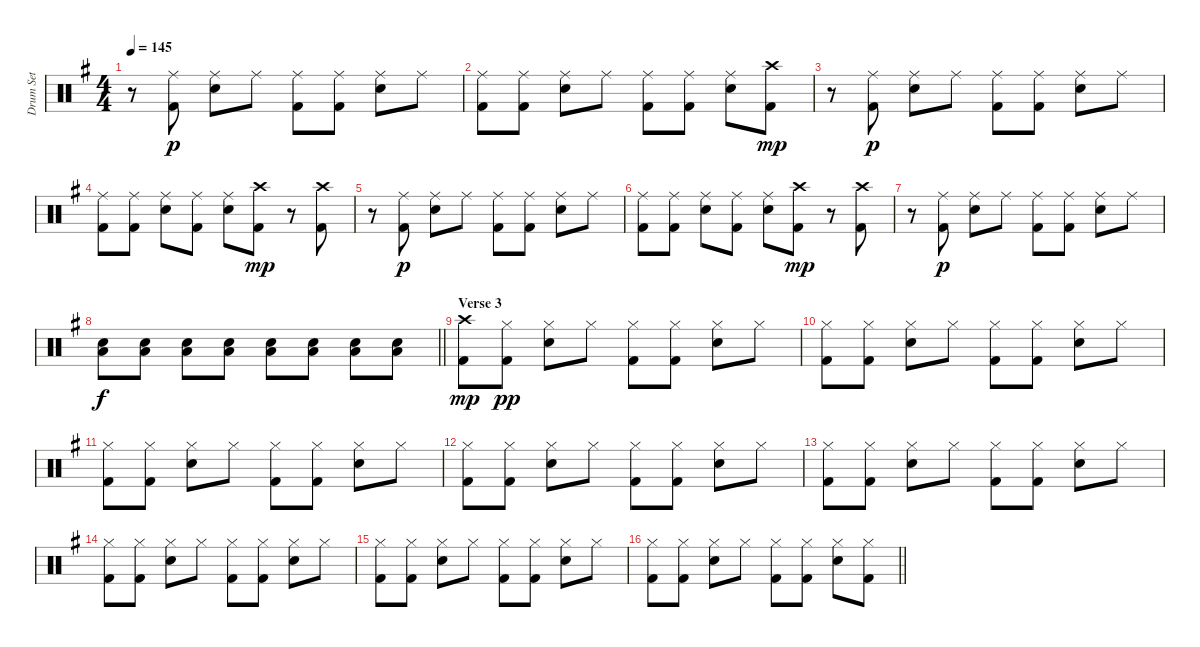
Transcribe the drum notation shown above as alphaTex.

\track ("Drum Set" "Drum Set") {instrument percussion}
\staff {score}
\articulation defaults
\ts (4 4)
\tempo 145
\clef neutral
\ks g
r.8{dy mp} ("Kick (hit) 2" "Ride (middle)").8{dy p} ("Ride (middle)" "Electric Snare (hit)").8 "Ride (middle)".8 ("Ride (middle)" "Kick (hit) 2").8 ("Ride (middle)" "Kick (hit) 2").8 ("Ride (middle)" "Electric Snare (hit)").8 "Ride (middle)".8 |
("Ride (middle)" "Kick (hit) 2").8 ("Ride (middle)" "Kick (hit) 2").8 ("Ride (middle)" "Electric Snare (hit)").8 "Ride (middle)".8 ("Ride (middle)" "Kick (hit) 2").8 ("Ride (middle)" "Kick (hit) 2").8 ("Ride (middle)" "Electric Snare (hit)").8 ("Crash high (hit)" "Kick (hit) 2").8{dy mp} |
r.8 ("Kick (hit) 2" "Ride (middle)").8{dy p} ("Ride (middle)" "Electric Snare (hit)").8 "Ride (middle)".8 ("Ride (middle)" "Kick (hit) 2").8 ("Ride (middle)" "Kick (hit) 2").8 ("Ride (middle)" "Electric Snare (hit)").8 "Ride (middle)".8 |
("Ride (middle)" "Kick (hit) 2").8 ("Ride (middle)" "Kick (hit) 2").8 ("Ride (middle)" "Electric Snare (hit)").8 ("Ride (middle)" "Kick (hit) 2").8 ("Ride (middle)" "Electric Snare (hit)").8 ("Crash high (hit)" "Kick (hit) 2").8{dy mp} r.8 ("Kick (hit) 2" "Crash high (hit)").8 |
r.8 ("Kick (hit) 2" "Ride (middle)").8{dy p} ("Ride (middle)" "Electric Snare (hit)").8 "Ride (middle)".8 ("Ride (middle)" "Kick (hit) 2").8 ("Ride (middle)" "Kick (hit) 2").8 ("Ride (middle)" "Electric Snare (hit)").8 "Ride (middle)".8 |
("Ride (middle)" "Kick (hit) 2").8 ("Ride (middle)" "Kick (hit) 2").8 ("Ride (middle)" "Electric Snare (hit)").8 ("Ride (middle)" "Kick (hit) 2").8 ("Ride (middle)" "Electric Snare (hit)").8 ("Crash high (hit)" "Kick (hit) 2").8{dy mp} r.8 ("Kick (hit) 2" "Crash high (hit)").8 |
r.8 ("Kick (hit) 2" "Ride (middle)").8{dy p} ("Ride (middle)" "Electric Snare (hit)").8 "Ride (middle)".8 ("Ride (middle)" "Kick (hit) 2").8 ("Ride (middle)" "Kick (hit) 2").8 ("Ride (middle)" "Electric Snare (hit)").8 "Ride (middle)".8 |
\barLineRight lightlight
("Electric Snare (hit)" "Low Tom (hit)").8{dy f} ("Electric Snare (hit)" "Low Tom (hit)").8 ("Electric Snare (hit)" "Low Tom (hit)").8 ("Electric Snare (hit)" "Low Tom (hit)").8 ("Electric Snare (hit)" "Low Tom (hit)").8 ("Electric Snare (hit)" "Low Tom (hit)").8 ("Electric Snare (hit)" "Low Tom (hit)").8 ("Electric Snare (hit)" "Low Tom (hit)").8 |
\section ("" "Verse 3")
("Crash high (hit)" "Kick (hit) 2").8{dy mp} ("Hi-Hat (closed)" "Kick (hit) 2").8{dy pp} ("Hi-Hat (closed)" "Electric Snare (hit)").8 "Hi-Hat (closed)".8 ("Hi-Hat (closed)" "Kick (hit) 2").8 ("Hi-Hat (closed)" "Kick (hit) 2").8 ("Hi-Hat (closed)" "Electric Snare (hit)").8 "Hi-Hat (closed)".8 |
("Hi-Hat (closed)" "Kick (hit) 2").8 ("Hi-Hat (closed)" "Kick (hit) 2").8 ("Hi-Hat (closed)" "Electric Snare (hit)").8 "Hi-Hat (closed)".8 ("Hi-Hat (closed)" "Kick (hit) 2").8 ("Hi-Hat (closed)" "Kick (hit) 2").8 ("Hi-Hat (closed)" "Electric Snare (hit)").8 "Hi-Hat (closed)".8 |
("Hi-Hat (closed)" "Kick (hit) 2").8 ("Hi-Hat (closed)" "Kick (hit) 2").8 ("Hi-Hat (closed)" "Electric Snare (hit)").8 "Hi-Hat (closed)".8 ("Hi-Hat (closed)" "Kick (hit) 2").8 ("Hi-Hat (closed)" "Kick (hit) 2").8 ("Hi-Hat (closed)" "Electric Snare (hit)").8 "Hi-Hat (closed)".8 |
("Hi-Hat (closed)" "Kick (hit) 2").8 ("Hi-Hat (closed)" "Kick (hit) 2").8 ("Hi-Hat (closed)" "Electric Snare (hit)").8 "Hi-Hat (closed)".8 ("Hi-Hat (closed)" "Kick (hit) 2").8 ("Hi-Hat (closed)" "Kick (hit) 2").8 ("Hi-Hat (closed)" "Electric Snare (hit)").8 "Hi-Hat (closed)".8 |
("Hi-Hat (closed)" "Kick (hit) 2").8 ("Hi-Hat (closed)" "Kick (hit) 2").8 ("Hi-Hat (closed)" "Electric Snare (hit)").8 "Hi-Hat (closed)".8 ("Hi-Hat (closed)" "Kick (hit) 2").8 ("Hi-Hat (closed)" "Kick (hit) 2").8 ("Hi-Hat (closed)" "Electric Snare (hit)").8 "Hi-Hat (closed)".8 |
("Hi-Hat (closed)" "Kick (hit) 2").8 ("Hi-Hat (closed)" "Kick (hit) 2").8 ("Hi-Hat (closed)" "Electric Snare (hit)").8 "Hi-Hat (closed)".8 ("Hi-Hat (closed)" "Kick (hit) 2").8 ("Hi-Hat (closed)" "Kick (hit) 2").8 ("Hi-Hat (closed)" "Electric Snare (hit)").8 "Hi-Hat (closed)".8 |
("Hi-Hat (closed)" "Kick (hit) 2").8 ("Hi-Hat (closed)" "Kick (hit) 2").8 ("Hi-Hat (closed)" "Electric Snare (hit)").8 "Hi-Hat (closed)".8 ("Hi-Hat (closed)" "Kick (hit) 2").8 ("Hi-Hat (closed)" "Kick (hit) 2").8 ("Hi-Hat (closed)" "Electric Snare (hit)").8 "Hi-Hat (closed)".8 |
\barLineRight lightlight
("Hi-Hat (closed)" "Kick (hit) 2").8 ("Hi-Hat (closed)" "Kick (hit) 2").8 ("Hi-Hat (closed)" "Electric Snare (hit)").8 "Hi-Hat (closed)".8 ("Hi-Hat (closed)" "Kick (hit) 2").8 ("Hi-Hat (closed)" "Kick (hit) 2").8 ("Hi-Hat (closed)" "Electric Snare (hit)").8 ("Hi-Hat (closed)" "Kick (hit) 2").8
